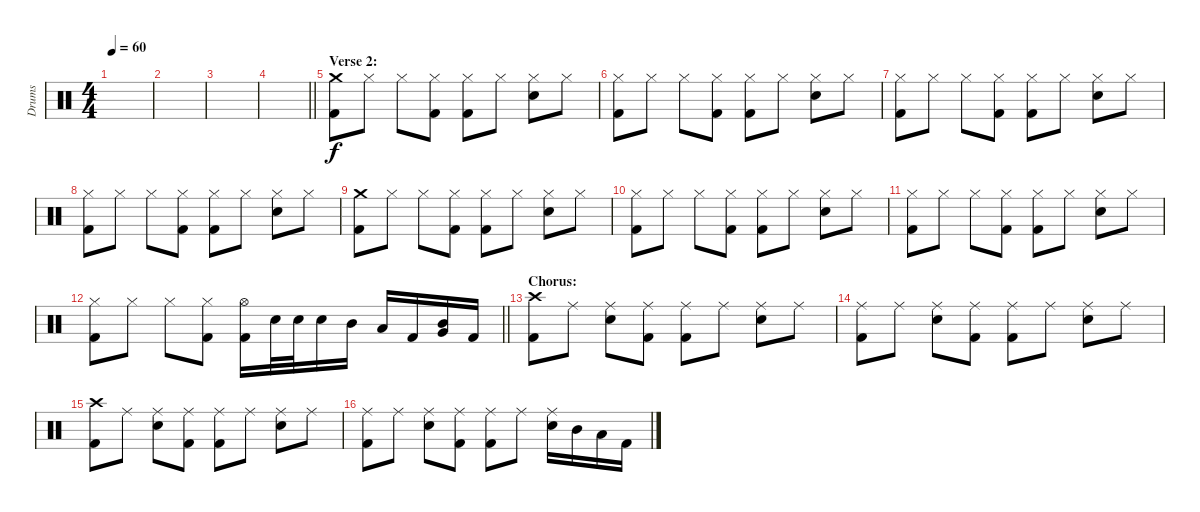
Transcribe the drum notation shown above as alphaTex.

\track ("Drums" "Drums") {instrument percussion}
\staff {score}
\articulation defaults
\ts (4 4)
\section ("" "")
\tempo 60
\clef neutral
\ks c
|
|
|
\barLineRight lightlight
|
\section ("" "Verse 2:")
("Crash medium (hit)" "Kick (hit) 2").8 "Hi-Hat (closed)".8 "Hi-Hat (closed)".8 ("Hi-Hat (closed)" "Kick (hit) 2").8 ("Hi-Hat (closed)" "Kick (hit) 2").8 "Hi-Hat (closed)".8 ("Hi-Hat (closed)" "Electric Snare (hit)").8 "Hi-Hat (closed)".8 |
("Hi-Hat (closed)" "Kick (hit) 2").8 "Hi-Hat (closed)".8 "Hi-Hat (closed)".8 ("Hi-Hat (closed)" "Kick (hit) 2").8 ("Hi-Hat (closed)" "Kick (hit) 2").8 "Hi-Hat (closed)".8 ("Hi-Hat (closed)" "Electric Snare (hit)").8 "Hi-Hat (closed)".8 |
("Hi-Hat (closed)" "Kick (hit) 2").8 "Hi-Hat (closed)".8 "Hi-Hat (closed)".8 ("Hi-Hat (closed)" "Kick (hit) 2").8 ("Hi-Hat (closed)" "Kick (hit) 2").8 "Hi-Hat (closed)".8 ("Hi-Hat (closed)" "Electric Snare (hit)").8 "Hi-Hat (closed)".8 |
("Hi-Hat (closed)" "Kick (hit) 2").8 "Hi-Hat (closed)".8 "Hi-Hat (closed)".8 ("Hi-Hat (closed)" "Kick (hit) 2").8 ("Hi-Hat (closed)" "Kick (hit) 2").8 "Hi-Hat (closed)".8 ("Hi-Hat (closed)" "Electric Snare (hit)").8 "Hi-Hat (closed)".8 |
("Crash medium (hit)" "Kick (hit) 2").8 "Hi-Hat (closed)".8 "Hi-Hat (closed)".8 ("Hi-Hat (closed)" "Kick (hit) 2").8 ("Hi-Hat (closed)" "Kick (hit) 2").8 "Hi-Hat (closed)".8 ("Hi-Hat (closed)" "Electric Snare (hit)").8 "Hi-Hat (closed)".8 |
("Hi-Hat (closed)" "Kick (hit) 2").8 "Hi-Hat (closed)".8 "Hi-Hat (closed)".8 ("Hi-Hat (closed)" "Kick (hit) 2").8 ("Hi-Hat (closed)" "Kick (hit) 2").8 "Hi-Hat (closed)".8 ("Hi-Hat (closed)" "Electric Snare (hit)").8 "Hi-Hat (closed)".8 |
("Hi-Hat (closed)" "Kick (hit) 2").8 "Hi-Hat (closed)".8 "Hi-Hat (closed)".8 ("Hi-Hat (closed)" "Kick (hit) 2").8 ("Hi-Hat (closed)" "Kick (hit) 2").8 "Hi-Hat (closed)".8 ("Hi-Hat (closed)" "Electric Snare (hit)").8 "Hi-Hat (closed)".8 |
\barLineRight lightlight
("Hi-Hat (closed)" "Kick (hit) 2").8 "Hi-Hat (closed)".8 "Hi-Hat (closed)".8 ("Hi-Hat (closed)" "Kick (hit) 2").8 ("Hi-Hat (open)" "Kick (hit) 2").16 "Electric Snare (hit)".32 "Electric Snare (hit)".32 "Electric Snare (hit)".16 "Mid Tom (hit)".16{balance 13} "Low Tom (hit)".16{balance 8} "Kick (hit) 2".16{balance 8} ("Very Low Tom (hit)" "Mid Tom (hit)").16{balance 11} "Kick (hit) 2".16{balance 8} |
\section ("" "Chorus:")
("Crash high (hit)" "Kick (hit) 2").8 "Ride (middle)".8 ("Ride (middle)" "Electric Snare (hit)").8 ("Ride (middle)" "Kick (hit) 2").8 ("Ride (middle)" "Kick (hit) 2").8 "Ride (middle)".8 ("Ride (middle)" "Electric Snare (hit)").8 "Ride (middle)".8 |
("Ride (middle)" "Kick (hit) 2").8 "Ride (middle)".8 ("Ride (middle)" "Electric Snare (hit)").8 ("Ride (middle)" "Kick (hit) 2").8 ("Ride (middle)" "Kick (hit) 2").8 "Ride (middle)".8 ("Ride (middle)" "Electric Snare (hit)").8 "Ride (middle)".8 |
("Crash high (hit)" "Kick (hit) 2").8 "Ride (middle)".8 ("Ride (middle)" "Electric Snare (hit)").8 ("Ride (middle)" "Kick (hit) 2").8 ("Ride (middle)" "Kick (hit) 2").8 "Ride (middle)".8 ("Ride (middle)" "Electric Snare (hit)").8 "Ride (middle)".8 |
("Ride (middle)" "Kick (hit) 2").8 "Ride (middle)".8 ("Ride (middle)" "Electric Snare (hit)").8 ("Ride (middle)" "Kick (hit) 2").8 ("Ride (middle)" "Kick (hit) 2").8 "Ride (middle)".8 ("Ride (middle)" "Electric Snare (hit)").16 "Mid Tom (hit)".16{balance 13} "Low Tom (hit)".16{balance 11} "Kick (hit) 2".16{balance 8}
